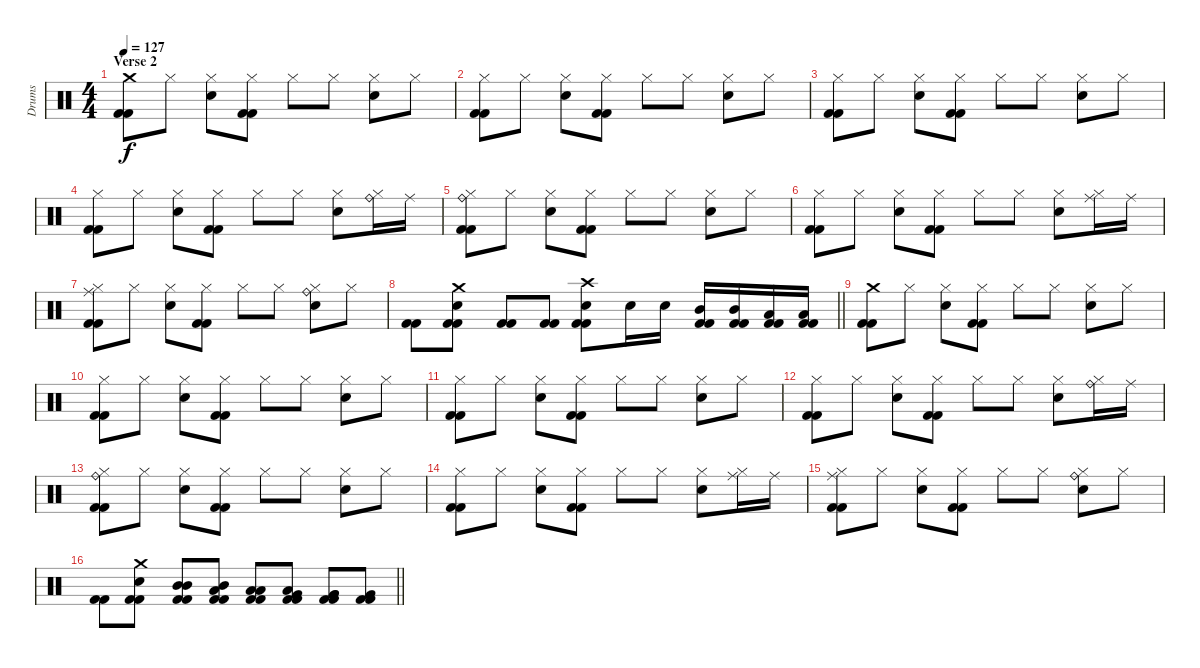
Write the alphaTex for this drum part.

\track ("Drums" "Drums") {instrument percussion}
\staff {score}
\articulation defaults
\ts (4 4)
\section ("" "Verse 2")
\tempo 127
\clef neutral
\ks c
("Crash medium (hit)" "Kick (hit) 2" "Kick (hit) 2").8{dy f} "Hi-Hat (closed)".8 ("Hi-Hat (closed)" "Electric Snare (hit)").8 ("Hi-Hat (closed)" "Kick (hit) 2" "Kick (hit) 2").8 "Hi-Hat (closed)".8 "Hi-Hat (closed)".8 ("Hi-Hat (closed)" "Electric Snare (hit)").8 "Hi-Hat (closed)".8 |
("Hi-Hat (closed)" "Kick (hit) 2" "Kick (hit) 2").8 "Hi-Hat (closed)".8 ("Hi-Hat (closed)" "Electric Snare (hit)").8 ("Hi-Hat (closed)" "Kick (hit) 2" "Kick (hit) 2").8 "Hi-Hat (closed)".8 "Hi-Hat (closed)".8 ("Hi-Hat (closed)" "Electric Snare (hit)").8 "Hi-Hat (closed)".8 |
("Hi-Hat (closed)" "Kick (hit) 2" "Kick (hit) 2").8 "Hi-Hat (closed)".8 ("Hi-Hat (closed)" "Electric Snare (hit)").8 ("Hi-Hat (closed)" "Kick (hit) 2" "Kick (hit) 2").8 "Hi-Hat (closed)".8 "Hi-Hat (closed)".8 ("Hi-Hat (closed)" "Electric Snare (hit)").8 "Hi-Hat (closed)".8 |
("Hi-Hat (closed)" "Kick (hit) 2" "Kick (hit) 2").8 "Hi-Hat (closed)".8 ("Hi-Hat (closed)" "Electric Snare (hit)").8 ("Hi-Hat (closed)" "Kick (hit) 2" "Kick (hit) 2").8 "Hi-Hat (closed)".8 "Hi-Hat (closed)".8 ("Hi-Hat (closed)" "Electric Snare (hit)").8 ("Ride (bell)" "Hi-Hat (closed)").16 "Ride (middle)".16 |
("Ride (bell)" "Hi-Hat (closed)" "Kick (hit) 2" "Kick (hit) 2").8 "Hi-Hat (closed)".8 ("Hi-Hat (closed)" "Electric Snare (hit)").8 ("Hi-Hat (closed)" "Kick (hit) 2" "Kick (hit) 2").8 "Hi-Hat (closed)".8 "Hi-Hat (closed)".8 ("Hi-Hat (closed)" "Electric Snare (hit)").8 "Hi-Hat (closed)".8 |
("Hi-Hat (closed)" "Kick (hit) 2" "Kick (hit) 2").8 "Hi-Hat (closed)".8 ("Hi-Hat (closed)" "Electric Snare (hit)").8 ("Hi-Hat (closed)" "Kick (hit) 2" "Kick (hit) 2").8 "Hi-Hat (closed)".8 "Hi-Hat (closed)".8 ("Hi-Hat (closed)" "Electric Snare (hit)").8 ("Ride (middle)" "Hi-Hat (closed)").16 "Ride (middle)".16 |
("Ride (middle)" "Hi-Hat (closed)" "Kick (hit) 2" "Kick (hit) 2").8 "Hi-Hat (closed)".8 ("Hi-Hat (closed)" "Electric Snare (hit)").8 ("Hi-Hat (closed)" "Kick (hit) 2" "Kick (hit) 2").8 "Hi-Hat (closed)".8 "Hi-Hat (closed)".8 ("Ride (bell)" "Hi-Hat (closed)" "Electric Snare (hit)").8 "Hi-Hat (closed)".8 |
\barLineRight lightlight
("Kick (hit) 2" "Kick (hit) 2").8 ("Crash medium (hit)" "Electric Snare (hit)" "Kick (hit) 2" "Kick (hit) 2").8 ("Kick (hit) 2" "Kick (hit) 2").8 ("Kick (hit) 2" "Kick (hit) 2").8 ("Crash high (hit)" "Electric Snare (hit)" "Kick (hit) 2" "Kick (hit) 2").8 "Electric Snare (hit)".16 "Electric Snare (hit)".16 ("Mid Tom (hit)" "Kick (hit) 2" "Kick (hit) 2").16 ("Mid Tom (hit)" "Kick (hit) 2" "Kick (hit) 2").16 ("Low Tom (hit)" "Kick (hit) 2" "Kick (hit) 2").16 ("Low Tom (hit)" "Kick (hit) 2" "Kick (hit) 2").16 |
("Crash medium (hit)" "Kick (hit) 2" "Kick (hit) 2").8 "Hi-Hat (closed)".8 ("Hi-Hat (closed)" "Electric Snare (hit)").8 ("Hi-Hat (closed)" "Kick (hit) 2" "Kick (hit) 2").8 "Hi-Hat (closed)".8 "Hi-Hat (closed)".8 ("Hi-Hat (closed)" "Electric Snare (hit)").8 "Hi-Hat (closed)".8 |
("Hi-Hat (closed)" "Kick (hit) 2" "Kick (hit) 2").8 "Hi-Hat (closed)".8 ("Hi-Hat (closed)" "Electric Snare (hit)").8 ("Hi-Hat (closed)" "Kick (hit) 2" "Kick (hit) 2").8 "Hi-Hat (closed)".8 "Hi-Hat (closed)".8 ("Hi-Hat (closed)" "Electric Snare (hit)").8 "Hi-Hat (closed)".8 |
("Hi-Hat (closed)" "Kick (hit) 2" "Kick (hit) 2").8 "Hi-Hat (closed)".8 ("Hi-Hat (closed)" "Electric Snare (hit)").8 ("Hi-Hat (closed)" "Kick (hit) 2" "Kick (hit) 2").8 "Hi-Hat (closed)".8 "Hi-Hat (closed)".8 ("Hi-Hat (closed)" "Electric Snare (hit)").8 "Hi-Hat (closed)".8 |
("Hi-Hat (closed)" "Kick (hit) 2" "Kick (hit) 2").8 "Hi-Hat (closed)".8 ("Hi-Hat (closed)" "Electric Snare (hit)").8 ("Hi-Hat (closed)" "Kick (hit) 2" "Kick (hit) 2").8 "Hi-Hat (closed)".8 "Hi-Hat (closed)".8 ("Hi-Hat (closed)" "Electric Snare (hit)").8 ("Ride (bell)" "Hi-Hat (closed)").16 "Ride (middle)".16 |
("Ride (bell)" "Hi-Hat (closed)" "Kick (hit) 2" "Kick (hit) 2").8 "Hi-Hat (closed)".8 ("Hi-Hat (closed)" "Electric Snare (hit)").8 ("Hi-Hat (closed)" "Kick (hit) 2" "Kick (hit) 2").8 "Hi-Hat (closed)".8 "Hi-Hat (closed)".8 ("Hi-Hat (closed)" "Electric Snare (hit)").8 "Hi-Hat (closed)".8 |
("Hi-Hat (closed)" "Kick (hit) 2" "Kick (hit) 2").8 "Hi-Hat (closed)".8 ("Hi-Hat (closed)" "Electric Snare (hit)").8 ("Hi-Hat (closed)" "Kick (hit) 2" "Kick (hit) 2").8 "Hi-Hat (closed)".8 "Hi-Hat (closed)".8 ("Hi-Hat (closed)" "Electric Snare (hit)").8 ("Ride (middle)" "Hi-Hat (closed)").16 "Ride (middle)".16 |
("Ride (middle)" "Hi-Hat (closed)" "Kick (hit) 2" "Kick (hit) 2").8 "Hi-Hat (closed)".8 ("Hi-Hat (closed)" "Electric Snare (hit)").8 ("Hi-Hat (closed)" "Kick (hit) 2" "Kick (hit) 2").8 "Hi-Hat (closed)".8 "Hi-Hat (closed)".8 ("Ride (bell)" "Hi-Hat (closed)" "Electric Snare (hit)").8 "Hi-Hat (closed)".8 |
\barLineRight lightlight
("Kick (hit) 2" "Kick (hit) 2").8 ("Crash medium (hit)" "Electric Snare (hit)" "Kick (hit) 2" "Kick (hit) 2").8 ("Mid Tom (hit)" "Mid Tom (hit)" "Kick (hit) 2" "Kick (hit) 2").8 ("Mid Tom (hit)" "Low Tom (hit)" "Kick (hit) 2" "Kick (hit) 2").8 ("Low Tom (hit)" "Low Tom (hit)" "Kick (hit) 2" "Kick (hit) 2").8 ("Low Tom (hit)" "Very Low Tom (hit)" "Kick (hit) 2" "Kick (hit) 2").8 ("Very Low Tom (hit)" "Very Low Tom (hit)" "Kick (hit) 2" "Kick (hit) 2").8 ("Very Low Tom (hit)" "Kick (hit) 2" "Kick (hit) 2").8
